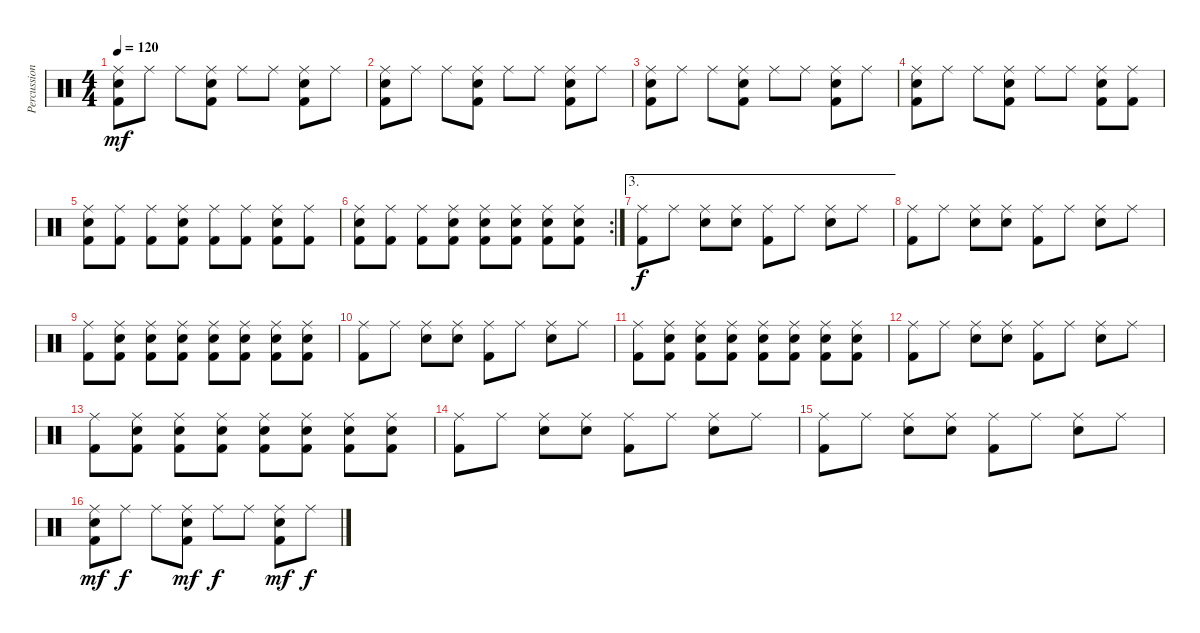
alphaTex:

\track ("Percussion" "Percussion") {instrument percussion}
\staff {score}
\articulation defaults
\ts (4 4)
\tempo 120
\clef neutral
\ks c
("Ride (middle)" "Kick (hit) 2" "Snare (hit) 2").8{dy mf} "Ride (middle)".8 "Ride (middle)".8 ("Ride (middle)" "Kick (hit) 2" "Snare (hit) 2").8 "Ride (middle)".8 "Ride (middle)".8 ("Ride (middle)" "Kick (hit) 2" "Snare (hit) 2").8 "Ride (middle)".8 |
("Ride (middle)" "Kick (hit) 2" "Snare (hit) 2").8 "Ride (middle)".8 "Ride (middle)".8 ("Ride (middle)" "Kick (hit) 2" "Snare (hit) 2").8 "Ride (middle)".8 "Ride (middle)".8 ("Ride (middle)" "Kick (hit) 2" "Snare (hit) 2").8 "Ride (middle)".8 |
("Ride (middle)" "Kick (hit) 2" "Snare (hit) 2").8 "Ride (middle)".8 "Ride (middle)".8 ("Ride (middle)" "Kick (hit) 2" "Snare (hit) 2").8 "Ride (middle)".8 "Ride (middle)".8 ("Ride (middle)" "Kick (hit) 2" "Snare (hit) 2").8 "Ride (middle)".8 |
("Ride (middle)" "Kick (hit) 2" "Snare (hit) 2").8 "Ride (middle)".8 "Ride (middle)".8 ("Ride (middle)" "Kick (hit) 2" "Snare (hit) 2").8 "Ride (middle)".8 "Ride (middle)".8 ("Ride (middle)" "Kick (hit) 2" "Snare (hit) 2").8 ("Ride (middle)" "Kick (hit) 2").8 |
("Ride (middle)" "Kick (hit) 2" "Snare (hit) 2").8 ("Ride (middle)" "Kick (hit) 2").8 ("Ride (middle)" "Kick (hit) 2").8 ("Ride (middle)" "Kick (hit) 2" "Snare (hit) 2").8 ("Ride (middle)" "Kick (hit) 2").8 ("Ride (middle)" "Kick (hit) 2").8 ("Ride (middle)" "Kick (hit) 2" "Snare (hit) 2").8 ("Ride (middle)" "Kick (hit) 2").8 |
\rc 2
("Ride (middle)" "Kick (hit) 2" "Snare (hit) 2").8 ("Ride (middle)" "Kick (hit) 2").8 ("Ride (middle)" "Kick (hit) 2").8 ("Ride (middle)" "Kick (hit) 2" "Snare (hit) 2").8 ("Ride (middle)" "Kick (hit) 2" "Snare (hit) 2").8 ("Ride (middle)" "Kick (hit) 2" "Snare (hit) 2").8 ("Ride (middle)" "Kick (hit) 2" "Snare (hit) 2").8 ("Ride (middle)" "Kick (hit) 2" "Snare (hit) 2").8 |
\ae 3
("Ride (middle)" "Kick (hit) 2").8{dy f} "Ride (middle)".8 ("Ride (middle)" "Snare (hit) 2").8 ("Ride (middle)" "Snare (hit) 2").8 ("Ride (middle)" "Kick (hit) 2").8 "Ride (middle)".8 ("Ride (middle)" "Snare (hit) 2").8 "Ride (middle)".8 |
("Ride (middle)" "Kick (hit) 2").8 "Ride (middle)".8 ("Ride (middle)" "Snare (hit) 2").8 ("Ride (middle)" "Snare (hit) 2").8 ("Ride (middle)" "Kick (hit) 2").8 "Ride (middle)".8 ("Ride (middle)" "Snare (hit) 2").8 "Ride (middle)".8 |
("Ride (middle)" "Kick (hit) 2").8 ("Ride (middle)" "Snare (hit) 2" "Kick (hit) 2").8 ("Ride (middle)" "Snare (hit) 2" "Kick (hit) 2").8 ("Ride (middle)" "Snare (hit) 2" "Kick (hit) 2").8 ("Ride (middle)" "Snare (hit) 2" "Kick (hit) 2").8 ("Ride (middle)" "Snare (hit) 2" "Kick (hit) 2").8 ("Ride (middle)" "Snare (hit) 2" "Kick (hit) 2").8 ("Ride (middle)" "Snare (hit) 2" "Kick (hit) 2").8 |
("Ride (middle)" "Kick (hit) 2").8 "Ride (middle)".8 ("Ride (middle)" "Snare (hit) 2").8 ("Ride (middle)" "Snare (hit) 2").8 ("Ride (middle)" "Kick (hit) 2").8 "Ride (middle)".8 ("Ride (middle)" "Snare (hit) 2").8 "Ride (middle)".8 |
("Ride (middle)" "Kick (hit) 2").8 ("Ride (middle)" "Snare (hit) 2" "Kick (hit) 2").8 ("Ride (middle)" "Snare (hit) 2" "Kick (hit) 2").8 ("Ride (middle)" "Snare (hit) 2" "Kick (hit) 2").8 ("Ride (middle)" "Snare (hit) 2" "Kick (hit) 2").8 ("Ride (middle)" "Snare (hit) 2" "Kick (hit) 2").8 ("Ride (middle)" "Snare (hit) 2" "Kick (hit) 2").8 ("Ride (middle)" "Snare (hit) 2" "Kick (hit) 2").8 |
("Ride (middle)" "Kick (hit) 2").8 "Ride (middle)".8 ("Ride (middle)" "Snare (hit) 2").8 ("Ride (middle)" "Snare (hit) 2").8 ("Ride (middle)" "Kick (hit) 2").8 "Ride (middle)".8 ("Ride (middle)" "Snare (hit) 2").8 "Ride (middle)".8 |
("Ride (middle)" "Kick (hit) 2").8 ("Ride (middle)" "Snare (hit) 2" "Kick (hit) 2").8 ("Ride (middle)" "Snare (hit) 2" "Kick (hit) 2").8 ("Ride (middle)" "Snare (hit) 2" "Kick (hit) 2").8 ("Ride (middle)" "Snare (hit) 2" "Kick (hit) 2").8 ("Ride (middle)" "Snare (hit) 2" "Kick (hit) 2").8 ("Ride (middle)" "Snare (hit) 2" "Kick (hit) 2").8 ("Ride (middle)" "Snare (hit) 2" "Kick (hit) 2").8 |
("Ride (middle)" "Kick (hit) 2").8 "Ride (middle)".8 ("Ride (middle)" "Snare (hit) 2").8 ("Ride (middle)" "Snare (hit) 2").8 ("Ride (middle)" "Kick (hit) 2").8 "Ride (middle)".8 ("Ride (middle)" "Snare (hit) 2").8 "Ride (middle)".8 |
("Ride (middle)" "Kick (hit) 2").8 "Ride (middle)".8 ("Ride (middle)" "Snare (hit) 2").8 ("Ride (middle)" "Snare (hit) 2").8 ("Ride (middle)" "Kick (hit) 2").8 "Ride (middle)".8 ("Ride (middle)" "Snare (hit) 2").8 "Ride (middle)".8 |
("Ride (middle)" "Kick (hit) 2" "Snare (hit) 2").8{dy mf} "Ride (middle)".8{dy f} "Ride (middle)".8 ("Ride (middle)" "Kick (hit) 2" "Snare (hit) 2").8{dy mf} "Ride (middle)".8{dy f} "Ride (middle)".8 ("Ride (middle)" "Kick (hit) 2" "Snare (hit) 2").8{dy mf} "Ride (middle)".8{dy f}
